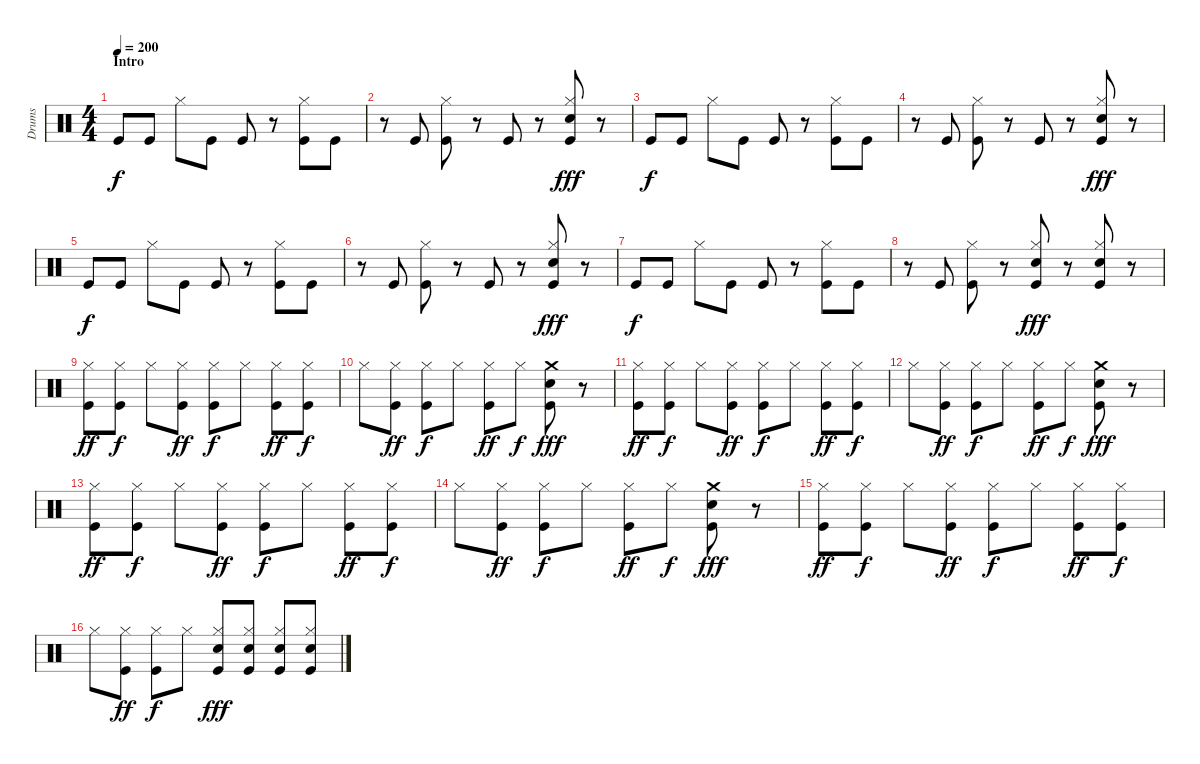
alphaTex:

\track ("Drums" "Drums") {instrument percussion}
\staff {score}
\articulation defaults
\ts (4 4)
\section ("" "Intro")
\tempo 200
\clef neutral
\ks c "Kick (hit)".8{dy f} "Kick (hit)".8 "Hi-Hat (closed)".8 "Kick (hit)".8 "Kick (hit)".8
r.8 ("Hi-Hat (closed)" "Kick (hit)").8 "Kick (hit)".8 |
r.8 "Kick (hit)".8 ("Hi-Hat (closed)" "Kick (hit)").8 r.8 "Kick (hit)".8 r.8 ("Hi-Hat (closed)" "Hand Clap (hit)" "Kick (hit)").8{dy fff} r.8 |
"Kick (hit)".8{dy f} "Kick (hit)".8 "Hi-Hat (closed)".8 "Kick (hit)".8 "Kick (hit)".8 r.8 ("Hi-Hat (closed)" "Kick (hit)").8 "Kick (hit)".8 |
r.8 "Kick (hit)".8 ("Hi-Hat (closed)" "Kick (hit)").8 r.8 "Kick (hit)".8 r.8 ("Hi-Hat (closed)" "Hand Clap (hit)" "Kick (hit)").8{dy fff} r.8 |
"Kick (hit)".8{dy f} "Kick (hit)".8 "Hi-Hat (closed)".8 "Kick (hit)".8 "Kick (hit)".8 r.8 ("Hi-Hat (closed)" "Kick (hit)").8 "Kick (hit)".8 |
r.8 "Kick (hit)".8 ("Hi-Hat (closed)" "Kick (hit)").8 r.8 "Kick (hit)".8 r.8 ("Hi-Hat (closed)" "Hand Clap (hit)" "Kick (hit)").8{dy fff} r.8 |
"Kick (hit)".8{dy f} "Kick (hit)".8 "Hi-Hat (closed)".8 "Kick (hit)".8 "Kick (hit)".8 r.8 ("Hi-Hat (closed)" "Kick (hit)").8 "Kick (hit)".8 |
r.8 "Kick (hit)".8 ("Hi-Hat (closed)" "Kick (hit)").8 r.8 ("Hi-Hat (closed)" "Hand Clap (hit)" "Kick (hit)").8{dy fff} r.8 ("Hi-Hat (closed)" "Hand Clap (hit)" "Kick (hit)").8 r.8 |
("Hi-Hat (closed)" "Kick (hit)").8{dy ff} ("Hi-Hat (closed)" "Kick (hit)").8{dy f} "Hi-Hat (closed)".8 ("Hi-Hat (closed)" "Kick (hit)").8{dy ff} ("Hi-Hat (closed)" "Kick (hit)").8{dy f} "Hi-Hat (closed)".8 ("Hi-Hat (closed)" "Kick (hit)").8{dy ff} ("Hi-Hat (closed)" "Kick (hit)").8{dy f} |
"Hi-Hat (closed)".8 ("Hi-Hat (closed)" "Kick (hit)").8{dy ff} ("Hi-Hat (closed)" "Kick (hit)").8{dy f} "Hi-Hat (closed)".8 ("Hi-Hat (closed)" "Kick (hit)").8{dy ff} "Hi-Hat (closed)".8{dy f} ("Crash medium (hit)" "Hand Clap (hit)" "Kick (hit)").8{dy fff} r.8 |
("Hi-Hat (closed)" "Kick (hit)").8{dy ff} ("Hi-Hat (closed)" "Kick (hit)").8{dy f} "Hi-Hat (closed)".8 ("Hi-Hat (closed)" "Kick (hit)").8{dy ff} ("Hi-Hat (closed)" "Kick (hit)").8{dy f} "Hi-Hat (closed)".8 ("Hi-Hat (closed)" "Kick (hit)").8{dy ff} ("Hi-Hat (closed)" "Kick (hit)").8{dy f} |
"Hi-Hat (closed)".8 ("Hi-Hat (closed)" "Kick (hit)").8{dy ff} ("Hi-Hat (closed)" "Kick (hit)").8{dy f} "Hi-Hat (closed)".8 ("Hi-Hat (closed)" "Kick (hit)").8{dy ff} "Hi-Hat (closed)".8{dy f} ("Crash medium (hit)" "Hand Clap (hit)" "Kick (hit)").8{dy fff} r.8 |
("Hi-Hat (closed)" "Kick (hit)").8{dy ff} ("Hi-Hat (closed)" "Kick (hit)").8{dy f} "Hi-Hat (closed)".8 ("Hi-Hat (closed)" "Kick (hit)").8{dy ff} ("Hi-Hat (closed)" "Kick (hit)").8{dy f} "Hi-Hat (closed)".8 ("Hi-Hat (closed)" "Kick (hit)").8{dy ff} ("Hi-Hat (closed)" "Kick (hit)").8{dy f} |
"Hi-Hat (closed)".8 ("Hi-Hat (closed)" "Kick (hit)").8{dy ff} ("Hi-Hat (closed)" "Kick (hit)").8{dy f} "Hi-Hat (closed)".8 ("Hi-Hat (closed)" "Kick (hit)").8{dy ff} "Hi-Hat (closed)".8{dy f} ("Crash medium (hit)" "Hand Clap (hit)" "Kick (hit)").8{dy fff} r.8 |
("Hi-Hat (closed)" "Kick (hit)").8{dy ff} ("Hi-Hat (closed)" "Kick (hit)").8{dy f} "Hi-Hat (closed)".8 ("Hi-Hat (closed)" "Kick (hit)").8{dy ff} ("Hi-Hat (closed)" "Kick (hit)").8{dy f} "Hi-Hat (closed)".8 ("Hi-Hat (closed)" "Kick (hit)").8{dy ff} ("Hi-Hat (closed)" "Kick (hit)").8{dy f} |
"Hi-Hat (closed)".8 ("Hi-Hat (closed)" "Kick (hit)").8{dy ff} ("Hi-Hat (closed)" "Kick (hit)").8{dy f} "Hi-Hat (closed)".8 ("Hi-Hat (closed)" "Hand Clap (hit)" "Kick (hit)").8{dy fff} ("Hi-Hat (closed)" "Hand Clap (hit)" "Kick (hit)").8 ("Hi-Hat (closed)" "Hand Clap (hit)" "Kick (hit)").8 ("Hi-Hat (closed)" "Hand Clap (hit)" "Kick (hit)").8
